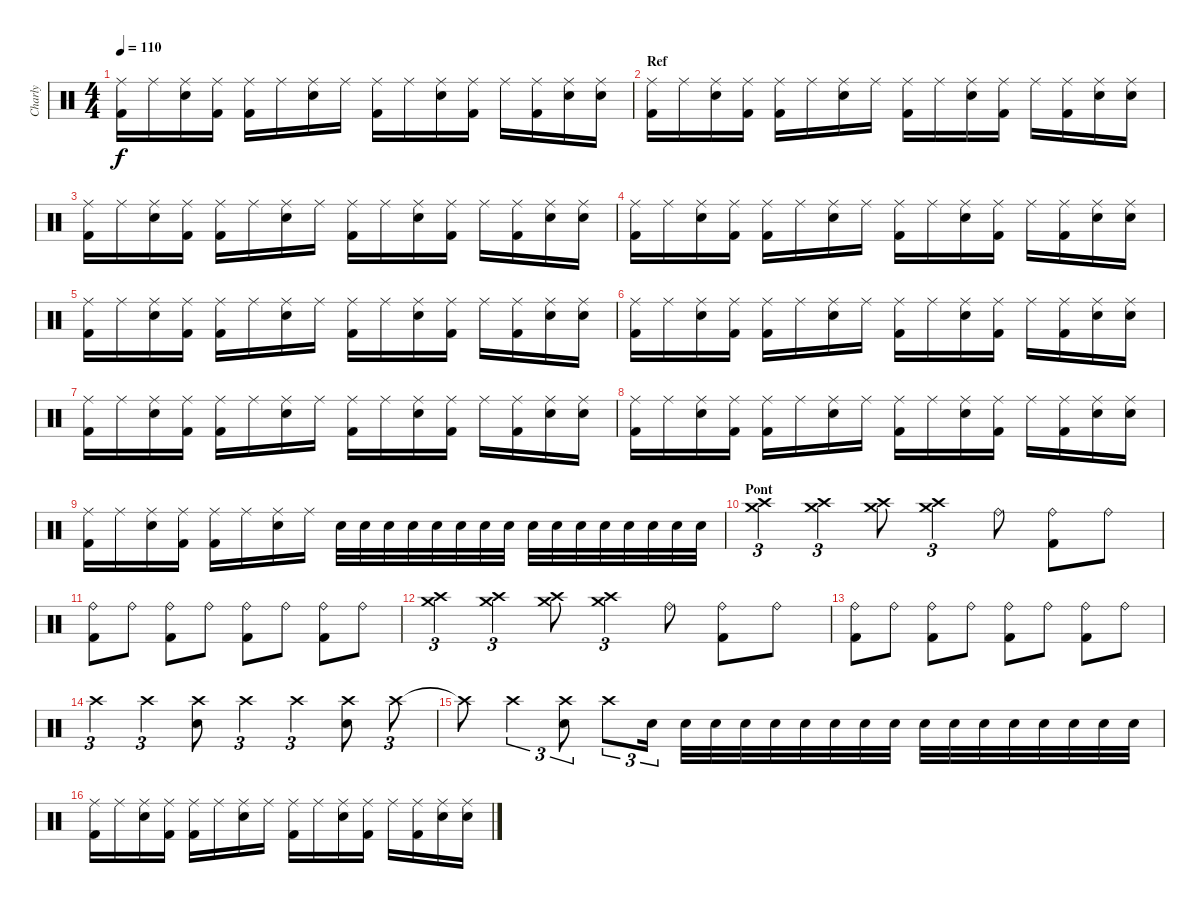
\track ("Charly" "Charly") {instrument percussion}
\staff {score}
\articulation defaults
\ts (4 4)
\tempo 110
\clef neutral
\ks c
("Ride (middle)" "Kick (hit) 2").16{dy f} "Ride (middle)".16 ("Ride (middle)" "Electric Snare (hit)").16 ("Ride (middle)" "Kick (hit) 2").16 ("Ride (middle)" "Kick (hit) 2").16 "Ride (middle)".16 ("Ride (middle)" "Electric Snare (hit)").16 "Ride (middle)".16 ("Ride (middle)" "Kick (hit) 2").16 "Ride (middle)".16 ("Ride (middle)" "Electric Snare (hit)").16 ("Ride (middle)" "Kick (hit) 2").16 "Ride (middle)".16 ("Ride (middle)" "Kick (hit) 2").16 ("Ride (middle)" "Electric Snare (hit)").16 ("Ride (middle)" "Electric Snare (hit)").16 |
\section ("" "Ref")
("Ride (middle)" "Kick (hit) 2").16 "Ride (middle)".16 ("Ride (middle)" "Electric Snare (hit)").16 ("Ride (middle)" "Kick (hit) 2").16 ("Ride (middle)" "Kick (hit) 2").16 "Ride (middle)".16 ("Ride (middle)" "Electric Snare (hit)").16 "Ride (middle)".16 ("Ride (middle)" "Kick (hit) 2").16 "Ride (middle)".16 ("Ride (middle)" "Electric Snare (hit)").16 ("Ride (middle)" "Kick (hit) 2").16 "Ride (middle)".16 ("Ride (middle)" "Kick (hit) 2").16 ("Ride (middle)" "Electric Snare (hit)").16 ("Ride (middle)" "Electric Snare (hit)").16 |
("Ride (middle)" "Kick (hit) 2").16 "Ride (middle)".16 ("Ride (middle)" "Electric Snare (hit)").16 ("Ride (middle)" "Kick (hit) 2").16 ("Ride (middle)" "Kick (hit) 2").16 "Ride (middle)".16 ("Ride (middle)" "Electric Snare (hit)").16 "Ride (middle)".16 ("Ride (middle)" "Kick (hit) 2").16 "Ride (middle)".16 ("Ride (middle)" "Electric Snare (hit)").16 ("Ride (middle)" "Kick (hit) 2").16 "Ride (middle)".16 ("Ride (middle)" "Kick (hit) 2").16 ("Ride (middle)" "Electric Snare (hit)").16 ("Ride (middle)" "Electric Snare (hit)").16 |
("Ride (middle)" "Kick (hit) 2").16 "Ride (middle)".16 ("Ride (middle)" "Electric Snare (hit)").16 ("Ride (middle)" "Kick (hit) 2").16 ("Ride (middle)" "Kick (hit) 2").16 "Ride (middle)".16 ("Ride (middle)" "Electric Snare (hit)").16 "Ride (middle)".16 ("Ride (middle)" "Kick (hit) 2").16 "Ride (middle)".16 ("Ride (middle)" "Electric Snare (hit)").16 ("Ride (middle)" "Kick (hit) 2").16 "Ride (middle)".16 ("Ride (middle)" "Kick (hit) 2").16 ("Ride (middle)" "Electric Snare (hit)").16 ("Ride (middle)" "Electric Snare (hit)").16 |
("Ride (middle)" "Kick (hit) 2").16 "Ride (middle)".16 ("Ride (middle)" "Electric Snare (hit)").16 ("Ride (middle)" "Kick (hit) 2").16 ("Ride (middle)" "Kick (hit) 2").16 "Ride (middle)".16 ("Ride (middle)" "Electric Snare (hit)").16 "Ride (middle)".16 ("Ride (middle)" "Kick (hit) 2").16 "Ride (middle)".16 ("Ride (middle)" "Electric Snare (hit)").16 ("Ride (middle)" "Kick (hit) 2").16 "Ride (middle)".16 ("Ride (middle)" "Kick (hit) 2").16 ("Ride (middle)" "Electric Snare (hit)").16 ("Ride (middle)" "Electric Snare (hit)").16 |
("Ride (middle)" "Kick (hit) 2").16 "Ride (middle)".16 ("Ride (middle)" "Electric Snare (hit)").16 ("Ride (middle)" "Kick (hit) 2").16 ("Ride (middle)" "Kick (hit) 2").16 "Ride (middle)".16 ("Ride (middle)" "Electric Snare (hit)").16 "Ride (middle)".16 ("Ride (middle)" "Kick (hit) 2").16 "Ride (middle)".16 ("Ride (middle)" "Electric Snare (hit)").16 ("Ride (middle)" "Kick (hit) 2").16 "Ride (middle)".16 ("Ride (middle)" "Kick (hit) 2").16 ("Ride (middle)" "Electric Snare (hit)").16 ("Ride (middle)" "Electric Snare (hit)").16 |
("Ride (middle)" "Kick (hit) 2").16 "Ride (middle)".16 ("Ride (middle)" "Electric Snare (hit)").16 ("Ride (middle)" "Kick (hit) 2").16 ("Ride (middle)" "Kick (hit) 2").16 "Ride (middle)".16 ("Ride (middle)" "Electric Snare (hit)").16 "Ride (middle)".16 ("Ride (middle)" "Kick (hit) 2").16 "Ride (middle)".16 ("Ride (middle)" "Electric Snare (hit)").16 ("Ride (middle)" "Kick (hit) 2").16 "Ride (middle)".16 ("Ride (middle)" "Kick (hit) 2").16 ("Ride (middle)" "Electric Snare (hit)").16 ("Ride (middle)" "Electric Snare (hit)").16 |
("Ride (middle)" "Kick (hit) 2").16 "Ride (middle)".16 ("Ride (middle)" "Electric Snare (hit)").16 ("Ride (middle)" "Kick (hit) 2").16 ("Ride (middle)" "Kick (hit) 2").16 "Ride (middle)".16 ("Ride (middle)" "Electric Snare (hit)").16 "Ride (middle)".16 ("Ride (middle)" "Kick (hit) 2").16 "Ride (middle)".16 ("Ride (middle)" "Electric Snare (hit)").16 ("Ride (middle)" "Kick (hit) 2").16 "Ride (middle)".16 ("Ride (middle)" "Kick (hit) 2").16 ("Ride (middle)" "Electric Snare (hit)").16 ("Ride (middle)" "Electric Snare (hit)").16 |
("Ride (middle)" "Kick (hit) 2").16 "Ride (middle)".16 ("Ride (middle)" "Electric Snare (hit)").16 ("Ride (middle)" "Kick (hit) 2").16 ("Ride (middle)" "Kick (hit) 2").16 "Ride (middle)".16 ("Ride (middle)" "Electric Snare (hit)").16 "Ride (middle)".16 "Electric Snare (hit)".32 "Electric Snare (hit)".32 "Electric Snare (hit)".32 "Electric Snare (hit)".32 "Electric Snare (hit)".32 "Electric Snare (hit)".32 "Electric Snare (hit)".32 "Electric Snare (hit)".32 "Electric Snare (hit)".32 "Electric Snare (hit)".32 "Electric Snare (hit)".32 "Electric Snare (hit)".32 "Electric Snare (hit)".32 "Electric Snare (hit)".32 "Electric Snare (hit)".32 "Electric Snare (hit)".32 |
\section ("" "Pont")
("Crash high (hit)" "Crash medium (hit)").4{tu (3 2)} ("Crash high (hit)" "Crash medium (hit)").4{tu (3 2)} ("Crash high (hit)" "Crash medium (hit)").8 ("Crash high (hit)" "Crash medium (hit)").4{tu (3 2)} "Ride (bell)".8 ("Ride (bell)" "Kick (hit) 2").8 "Ride (bell)".8 |
("Ride (bell)" "Kick (hit) 2").8 "Ride (bell)".8 ("Ride (bell)" "Kick (hit) 2").8 "Ride (bell)".8 ("Ride (bell)" "Kick (hit) 2").8 "Ride (bell)".8 ("Ride (bell)" "Kick (hit) 2").8 "Ride (bell)".8 |
("Crash high (hit)" "Crash medium (hit)").4{tu (3 2)} ("Crash high (hit)" "Crash medium (hit)").4{tu (3 2)} ("Crash high (hit)" "Crash medium (hit)").8 ("Crash high (hit)" "Crash medium (hit)").4{tu (3 2)} "Ride (bell)".8 ("Ride (bell)" "Kick (hit) 2").8 "Ride (bell)".8 |
("Ride (bell)" "Kick (hit) 2").8 "Ride (bell)".8 ("Ride (bell)" "Kick (hit) 2").8 "Ride (bell)".8 ("Ride (bell)" "Kick (hit) 2").8 "Ride (bell)".8 ("Ride (bell)" "Kick (hit) 2").8 "Ride (bell)".8 |
"Crash high (hit)".4{tu (3 2)} "Crash high (hit)".4{tu (3 2)} ("Electric Snare (hit)" "Crash high (hit)").8 "Crash high (hit)".4{tu (3 2)} "Crash high (hit)".4{tu (3 2)} ("Electric Snare (hit)" "Crash high (hit)").8 "Crash high (hit)".8{tu (3 2)} |
"Crash high (hit)"{t}.8 "Crash high (hit)".4{tu (3 2)} ("Electric Snare (hit)" "Crash high (hit)").8{tu (3 2)} "Crash high (hit)".8{tu (3 2)} "Electric Snare (hit)".16{tu (3 2)} "Electric Snare (hit)".32 "Electric Snare (hit)".32 "Electric Snare (hit)".32 "Electric Snare (hit)".32 "Electric Snare (hit)".32 "Electric Snare (hit)".32 "Electric Snare (hit)".32 "Electric Snare (hit)".32 "Electric Snare (hit)".32 "Electric Snare (hit)".32 "Electric Snare (hit)".32 "Electric Snare (hit)".32 "Electric Snare (hit)".32 "Electric Snare (hit)".32 "Electric Snare (hit)".32 "Electric Snare (hit)".32 |
("Ride (middle)" "Kick (hit) 2").16 "Ride (middle)".16 ("Ride (middle)" "Electric Snare (hit)").16 ("Ride (middle)" "Kick (hit) 2").16 ("Ride (middle)" "Kick (hit) 2").16 "Ride (middle)".16 ("Ride (middle)" "Electric Snare (hit)").16 "Ride (middle)".16 ("Ride (middle)" "Kick (hit) 2").16 "Ride (middle)".16 ("Ride (middle)" "Electric Snare (hit)").16 ("Ride (middle)" "Kick (hit) 2").16 "Ride (middle)".16 ("Ride (middle)" "Kick (hit) 2").16 ("Ride (middle)" "Electric Snare (hit)").16 ("Ride (middle)" "Electric Snare (hit)").16
